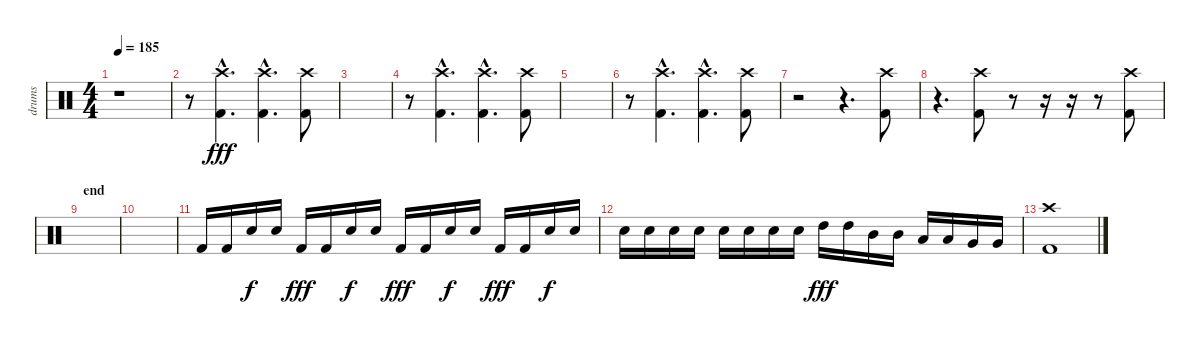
\track ("drums" "drums") {instrument percussion}
\staff {score}
\articulation defaults
\ts (4 4)
\tempo 185
\clef neutral
\ks c
r.1{dy fff} |
r.8 ("Crash high (hit)"{hac} "Kick (hit) 2"{hac}).4{d} ("Crash high (hit)"{hac} "Kick (hit) 2"{hac}).4{d} ("Crash high (hit)" "Kick (hit) 2").8 |
|
r.8 ("Crash high (hit)"{hac} "Kick (hit) 2"{hac}).4{d} ("Crash high (hit)"{hac} "Kick (hit) 2"{hac}).4{d} ("Crash high (hit)" "Kick (hit) 2").8 |
|
r.8 ("Crash high (hit)"{hac} "Kick (hit) 2"{hac}).4{d} ("Crash high (hit)"{hac} "Kick (hit) 2"{hac}).4{d} ("Crash high (hit)" "Kick (hit) 2").8 |
r.2 r.4{d} ("Crash high (hit)" "Kick (hit) 2").8 |
r.4{d} ("Crash high (hit)" "Kick (hit) 2").8 r.8 r.16 r.16 r.8 ("Crash high (hit)" "Kick (hit) 2").8 |
\section ("" "end")
|
|
"Kick (hit) 2".16 "Kick (hit) 2".16 "Snare (hit) 2".16{dy f} "Snare (hit) 2".16 "Kick (hit) 2".16{dy fff} "Kick (hit) 2".16 "Snare (hit) 2".16{dy f} "Snare (hit) 2".16 "Kick (hit) 2".16{dy fff} "Kick (hit) 2".16 "Snare (hit) 2".16{dy f} "Snare (hit) 2".16 "Kick (hit) 2".16{dy fff} "Kick (hit) 2".16 "Snare (hit) 2".16{dy f} "Snare (hit) 2".16 |
"Snare (hit) 2".16 "Snare (hit) 2".16 "Snare (hit) 2".16 "Snare (hit) 2".16 "Snare (hit) 2".16 "Snare (hit) 2".16 "Snare (hit) 2".16 "Snare (hit) 2".16 "High Tom (hit)".16{dy fff} "High Tom (hit)".16 "Mid Tom (hit)".16 "Mid Tom (hit)".16 "Low Tom (hit)".16 "Low Tom (hit)".16 "Very Low Tom (hit)".16 "Very Low Tom (hit)".16 |
("Crash high (hit)" "Kick (hit) 2").1
